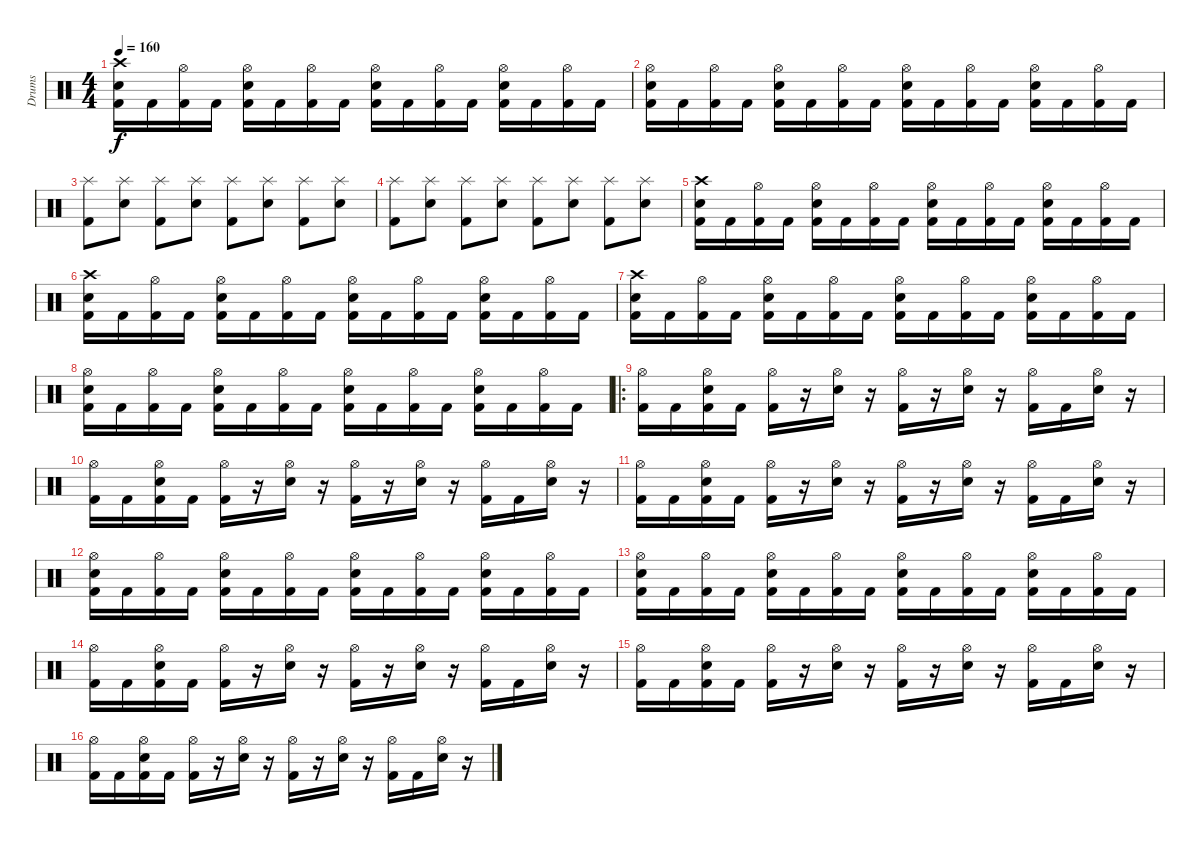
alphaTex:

\track ("Drums" "Drums") {instrument percussion}
\staff {score}
\articulation defaults
\ts (4 4)
\tempo 160
\clef neutral
\ks c
("Crash high (hit)" "Electric Snare (hit)" "Kick (hit) 2").16{dy f} "Kick (hit) 2".16 ("Hi-Hat (open)" "Kick (hit) 2").16 "Kick (hit) 2".16 ("Hi-Hat (open)" "Electric Snare (hit)" "Kick (hit) 2").16 "Kick (hit) 2".16 ("Hi-Hat (open)" "Kick (hit) 2").16 "Kick (hit) 2".16 ("Hi-Hat (open)" "Electric Snare (hit)" "Kick (hit) 2").16 "Kick (hit) 2".16 ("Hi-Hat (open)" "Kick (hit) 2").16 "Kick (hit) 2".16 ("Hi-Hat (open)" "Electric Snare (hit)" "Kick (hit) 2").16 "Kick (hit) 2".16 ("Hi-Hat (open)" "Kick (hit) 2").16 "Kick (hit) 2".16 |
("Hi-Hat (open)" "Electric Snare (hit)" "Kick (hit) 2").16 "Kick (hit) 2".16 ("Hi-Hat (open)" "Kick (hit) 2").16 "Kick (hit) 2".16 ("Hi-Hat (open)" "Electric Snare (hit)" "Kick (hit) 2").16 "Kick (hit) 2".16 ("Hi-Hat (open)" "Kick (hit) 2").16 "Kick (hit) 2".16 ("Hi-Hat (open)" "Electric Snare (hit)" "Kick (hit) 2").16 "Kick (hit) 2".16 ("Hi-Hat (open)" "Kick (hit) 2").16 "Kick (hit) 2".16 ("Hi-Hat (open)" "Electric Snare (hit)" "Kick (hit) 2").16 "Kick (hit) 2".16 ("Hi-Hat (open)" "Kick (hit) 2").16 "Kick (hit) 2".16 |
("Splash (hit)" "Kick (hit) 2").8 ("Splash (hit)" "Electric Snare (hit)").8 ("Splash (hit)" "Kick (hit) 2").8 ("Splash (hit)" "Electric Snare (hit)").8 ("Splash (hit)" "Kick (hit) 2").8 ("Splash (hit)" "Electric Snare (hit)").8 ("Splash (hit)" "Kick (hit) 2").8 ("Splash (hit)" "Electric Snare (hit)").8 |
("Splash (hit)" "Kick (hit) 2").8 ("Splash (hit)" "Electric Snare (hit)").8 ("Splash (hit)" "Kick (hit) 2").8 ("Splash (hit)" "Electric Snare (hit)").8 ("Splash (hit)" "Kick (hit) 2").8 ("Splash (hit)" "Electric Snare (hit)").8 ("Splash (hit)" "Kick (hit) 2").8 ("Splash (hit)" "Electric Snare (hit)").8 |
("Crash high (hit)" "Electric Snare (hit)" "Kick (hit) 2").16 "Kick (hit) 2".16 ("Hi-Hat (open)" "Kick (hit) 2").16 "Kick (hit) 2".16 ("Hi-Hat (open)" "Electric Snare (hit)" "Kick (hit) 2").16 "Kick (hit) 2".16 ("Hi-Hat (open)" "Kick (hit) 2").16 "Kick (hit) 2".16 ("Hi-Hat (open)" "Electric Snare (hit)" "Kick (hit) 2").16 "Kick (hit) 2".16 ("Hi-Hat (open)" "Kick (hit) 2").16 "Kick (hit) 2".16 ("Hi-Hat (open)" "Electric Snare (hit)" "Kick (hit) 2").16 "Kick (hit) 2".16 ("Hi-Hat (open)" "Kick (hit) 2").16 "Kick (hit) 2".16 |
("Crash high (hit)" "Electric Snare (hit)" "Kick (hit) 2").16 "Kick (hit) 2".16 ("Hi-Hat (open)" "Kick (hit) 2").16 "Kick (hit) 2".16 ("Hi-Hat (open)" "Electric Snare (hit)" "Kick (hit) 2").16 "Kick (hit) 2".16 ("Hi-Hat (open)" "Kick (hit) 2").16 "Kick (hit) 2".16 ("Hi-Hat (open)" "Electric Snare (hit)" "Kick (hit) 2").16 "Kick (hit) 2".16 ("Hi-Hat (open)" "Kick (hit) 2").16 "Kick (hit) 2".16 ("Hi-Hat (open)" "Electric Snare (hit)" "Kick (hit) 2").16 "Kick (hit) 2".16 ("Hi-Hat (open)" "Kick (hit) 2").16 "Kick (hit) 2".16 |
("Crash high (hit)" "Electric Snare (hit)" "Kick (hit) 2").16 "Kick (hit) 2".16 ("Hi-Hat (open)" "Kick (hit) 2").16 "Kick (hit) 2".16 ("Hi-Hat (open)" "Electric Snare (hit)" "Kick (hit) 2").16 "Kick (hit) 2".16 ("Hi-Hat (open)" "Kick (hit) 2").16 "Kick (hit) 2".16 ("Hi-Hat (open)" "Electric Snare (hit)" "Kick (hit) 2").16 "Kick (hit) 2".16 ("Hi-Hat (open)" "Kick (hit) 2").16 "Kick (hit) 2".16 ("Hi-Hat (open)" "Electric Snare (hit)" "Kick (hit) 2").16 "Kick (hit) 2".16 ("Hi-Hat (open)" "Kick (hit) 2").16 "Kick (hit) 2".16 |
("Hi-Hat (open)" "Electric Snare (hit)" "Kick (hit) 2").16 "Kick (hit) 2".16 ("Hi-Hat (open)" "Kick (hit) 2").16 "Kick (hit) 2".16 ("Hi-Hat (open)" "Electric Snare (hit)" "Kick (hit) 2").16 "Kick (hit) 2".16 ("Hi-Hat (open)" "Kick (hit) 2").16 "Kick (hit) 2".16 ("Hi-Hat (open)" "Electric Snare (hit)" "Kick (hit) 2").16 "Kick (hit) 2".16 ("Hi-Hat (open)" "Kick (hit) 2").16 "Kick (hit) 2".16 ("Hi-Hat (open)" "Electric Snare (hit)" "Kick (hit) 2").16 "Kick (hit) 2".16 ("Hi-Hat (open)" "Kick (hit) 2").16 "Kick (hit) 2".16 |
\ro
("Hi-Hat (open)" "Kick (hit) 2").16 "Kick (hit) 2".16 ("Hi-Hat (open)" "Electric Snare (hit)" "Kick (hit) 2").16 "Kick (hit) 2".16 ("Hi-Hat (open)" "Kick (hit) 2").16 r.16 ("Hi-Hat (open)" "Electric Snare (hit)").16 r.16 ("Hi-Hat (open)" "Kick (hit) 2").16 r.16 ("Hi-Hat (open)" "Electric Snare (hit)").16 r.16 ("Hi-Hat (open)" "Kick (hit) 2").16 "Kick (hit) 2".16 ("Hi-Hat (open)" "Electric Snare (hit)").16 r.16 |
("Hi-Hat (open)" "Kick (hit) 2").16 "Kick (hit) 2".16 ("Hi-Hat (open)" "Electric Snare (hit)" "Kick (hit) 2").16 "Kick (hit) 2".16 ("Hi-Hat (open)" "Kick (hit) 2").16 r.16 ("Hi-Hat (open)" "Electric Snare (hit)").16 r.16 ("Hi-Hat (open)" "Kick (hit) 2").16 r.16 ("Hi-Hat (open)" "Electric Snare (hit)").16 r.16 ("Hi-Hat (open)" "Kick (hit) 2").16 "Kick (hit) 2".16 ("Hi-Hat (open)" "Electric Snare (hit)").16 r.16 |
("Hi-Hat (open)" "Kick (hit) 2").16 "Kick (hit) 2".16 ("Hi-Hat (open)" "Electric Snare (hit)" "Kick (hit) 2").16 "Kick (hit) 2".16 ("Hi-Hat (open)" "Kick (hit) 2").16 r.16 ("Hi-Hat (open)" "Electric Snare (hit)").16 r.16 ("Hi-Hat (open)" "Kick (hit) 2").16 r.16 ("Hi-Hat (open)" "Electric Snare (hit)").16 r.16 ("Hi-Hat (open)" "Kick (hit) 2").16 "Kick (hit) 2".16 ("Hi-Hat (open)" "Electric Snare (hit)").16 r.16 |
("Hi-Hat (open)" "Electric Snare (hit)" "Kick (hit) 2").16 "Kick (hit) 2".16 ("Hi-Hat (open)" "Kick (hit) 2").16 "Kick (hit) 2".16 ("Hi-Hat (open)" "Electric Snare (hit)" "Kick (hit) 2").16 "Kick (hit) 2".16 ("Hi-Hat (open)" "Kick (hit) 2").16 "Kick (hit) 2".16 ("Hi-Hat (open)" "Electric Snare (hit)" "Kick (hit) 2").16 "Kick (hit) 2".16 ("Hi-Hat (open)" "Kick (hit) 2").16 "Kick (hit) 2".16 ("Hi-Hat (open)" "Electric Snare (hit)" "Kick (hit) 2").16 "Kick (hit) 2".16 ("Hi-Hat (open)" "Kick (hit) 2").16 "Kick (hit) 2".16 |
("Hi-Hat (open)" "Electric Snare (hit)" "Kick (hit) 2").16 "Kick (hit) 2".16 ("Hi-Hat (open)" "Kick (hit) 2").16 "Kick (hit) 2".16 ("Hi-Hat (open)" "Electric Snare (hit)" "Kick (hit) 2").16 "Kick (hit) 2".16 ("Hi-Hat (open)" "Kick (hit) 2").16 "Kick (hit) 2".16 ("Hi-Hat (open)" "Electric Snare (hit)" "Kick (hit) 2").16 "Kick (hit) 2".16 ("Hi-Hat (open)" "Kick (hit) 2").16 "Kick (hit) 2".16 ("Hi-Hat (open)" "Electric Snare (hit)" "Kick (hit) 2").16 "Kick (hit) 2".16 ("Hi-Hat (open)" "Kick (hit) 2").16 "Kick (hit) 2".16 |
("Hi-Hat (open)" "Kick (hit) 2").16 "Kick (hit) 2".16 ("Hi-Hat (open)" "Electric Snare (hit)" "Kick (hit) 2").16 "Kick (hit) 2".16 ("Hi-Hat (open)" "Kick (hit) 2").16 r.16 ("Hi-Hat (open)" "Electric Snare (hit)").16 r.16 ("Hi-Hat (open)" "Kick (hit) 2").16 r.16 ("Hi-Hat (open)" "Electric Snare (hit)").16 r.16 ("Hi-Hat (open)" "Kick (hit) 2").16 "Kick (hit) 2".16 ("Hi-Hat (open)" "Electric Snare (hit)").16 r.16 |
("Hi-Hat (open)" "Kick (hit) 2").16 "Kick (hit) 2".16 ("Hi-Hat (open)" "Electric Snare (hit)" "Kick (hit) 2").16 "Kick (hit) 2".16 ("Hi-Hat (open)" "Kick (hit) 2").16 r.16 ("Hi-Hat (open)" "Electric Snare (hit)").16 r.16 ("Hi-Hat (open)" "Kick (hit) 2").16 r.16 ("Hi-Hat (open)" "Electric Snare (hit)").16 r.16 ("Hi-Hat (open)" "Kick (hit) 2").16 "Kick (hit) 2".16 ("Hi-Hat (open)" "Electric Snare (hit)").16 r.16 |
("Hi-Hat (open)" "Kick (hit) 2").16 "Kick (hit) 2".16 ("Hi-Hat (open)" "Electric Snare (hit)" "Kick (hit) 2").16 "Kick (hit) 2".16 ("Hi-Hat (open)" "Kick (hit) 2").16 r.16 ("Hi-Hat (open)" "Electric Snare (hit)").16 r.16 ("Hi-Hat (open)" "Kick (hit) 2").16 r.16 ("Hi-Hat (open)" "Electric Snare (hit)").16 r.16 ("Hi-Hat (open)" "Kick (hit) 2").16 "Kick (hit) 2".16 ("Hi-Hat (open)" "Electric Snare (hit)").16 r.16
